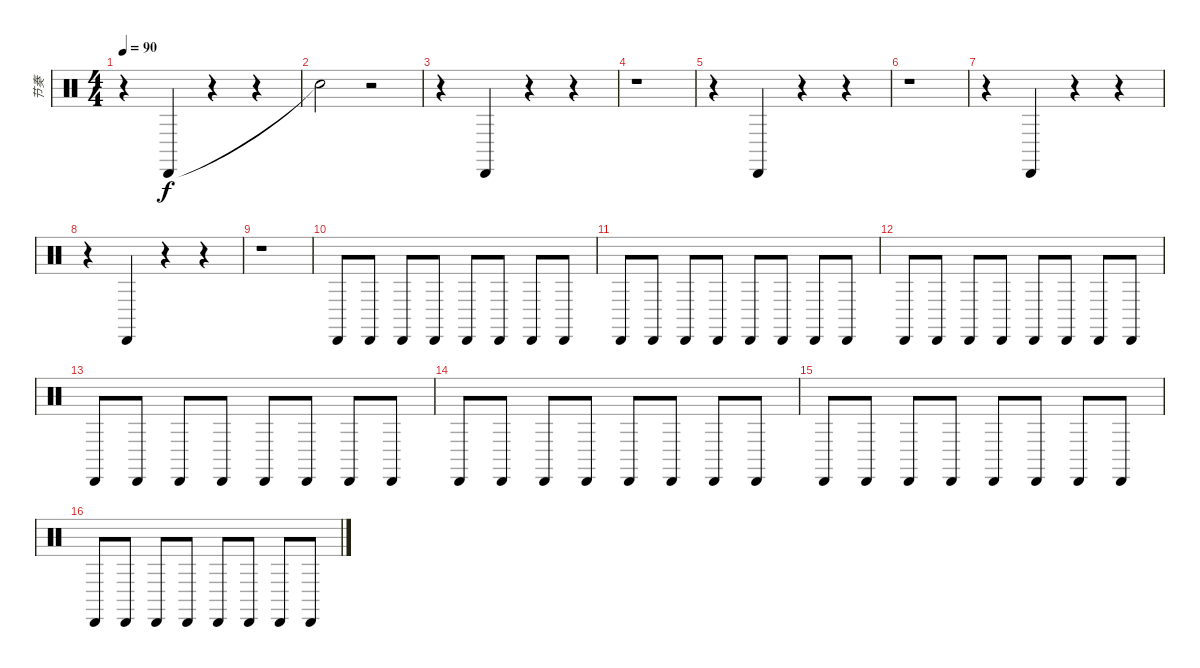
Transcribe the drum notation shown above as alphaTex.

\track ("节奏" "节奏") {instrument percussion}
\staff {score}
\articulation defaults
\ts (4 4)
\tempo 90
\clef neutral
\ks c
r.4{dy f} "Cabasa (hit)".4 r.4 r.4 |
"Snare (hit)"{t}.2 r.2 |
r.4 "Cabasa (hit)".4 r.4 r.4 |
r.1 |
r.4 "Cabasa (hit)".4 r.4 r.4 |
r.1 |
r.4 "Cabasa (hit)".4 r.4 r.4 |
r.4 "Cabasa (hit)".4 r.4 r.4 |
r.1 |
"Cabasa (hit)".8{volume 6} "Cabasa (hit)".8 "Cabasa (hit)".8{volume 13} "Cabasa (hit)".8{volume 6} "Cabasa (hit)".8 "Cabasa (hit)".8 "Cabasa (hit)".8{volume 13} "Cabasa (hit)".8{volume 6} |
"Cabasa (hit)".8{volume 6} "Cabasa (hit)".8 "Cabasa (hit)".8{volume 13} "Cabasa (hit)".8{volume 6} "Cabasa (hit)".8 "Cabasa (hit)".8 "Cabasa (hit)".8{volume 13} "Cabasa (hit)".8{volume 6} |
"Cabasa (hit)".8{volume 6} "Cabasa (hit)".8 "Cabasa (hit)".8{volume 13} "Cabasa (hit)".8{volume 6} "Cabasa (hit)".8 "Cabasa (hit)".8 "Cabasa (hit)".8{volume 13} "Cabasa (hit)".8{volume 6} |
"Cabasa (hit)".8{volume 6} "Cabasa (hit)".8 "Cabasa (hit)".8{volume 13} "Cabasa (hit)".8{volume 6} "Cabasa (hit)".8 "Cabasa (hit)".8 "Cabasa (hit)".8{volume 13} "Cabasa (hit)".8{volume 6} |
"Cabasa (hit)".8{volume 6} "Cabasa (hit)".8 "Cabasa (hit)".8{volume 13} "Cabasa (hit)".8{volume 6} "Cabasa (hit)".8 "Cabasa (hit)".8 "Cabasa (hit)".8{volume 13} "Cabasa (hit)".8{volume 6} |
"Cabasa (hit)".8{volume 6} "Cabasa (hit)".8 "Cabasa (hit)".8{volume 13} "Cabasa (hit)".8{volume 6} "Cabasa (hit)".8 "Cabasa (hit)".8 "Cabasa (hit)".8{volume 13} "Cabasa (hit)".8{volume 6} |
"Cabasa (hit)".8{volume 6} "Cabasa (hit)".8 "Cabasa (hit)".8{volume 13} "Cabasa (hit)".8{volume 6} "Cabasa (hit)".8 "Cabasa (hit)".8 "Cabasa (hit)".8{volume 13} "Cabasa (hit)".8{volume 6}
